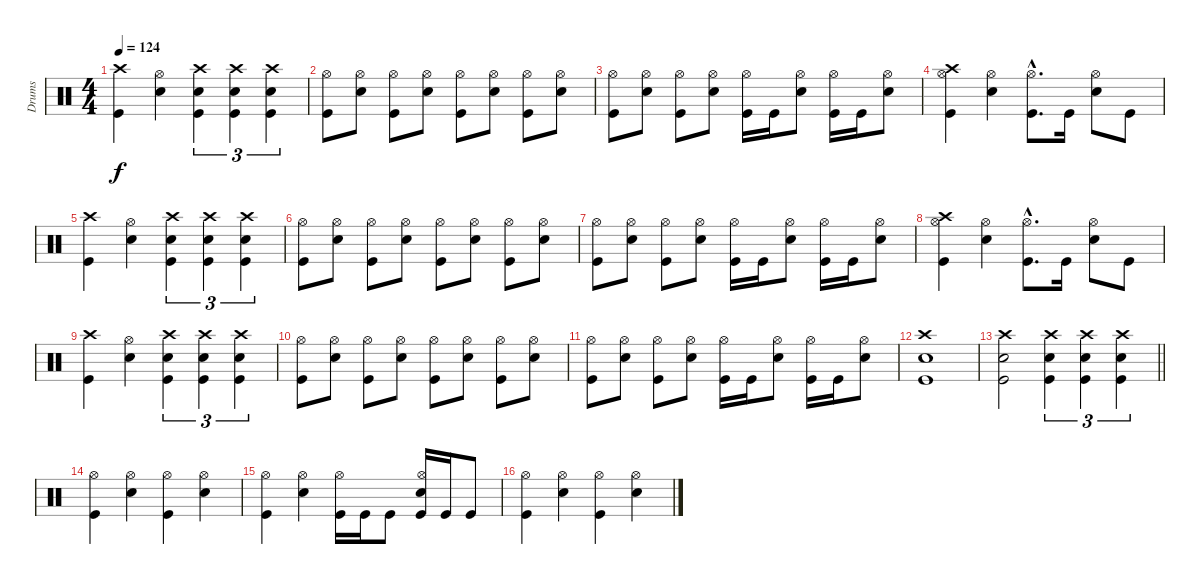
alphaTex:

\track ("Drums" "Drums") {instrument percussion}
\staff {score}
\articulation defaults
\ts (4 4)
\tempo 124
\clef neutral
\ks c
("Crash high (hit)" "Kick (hit)").4{dy f} ("Hi-Hat (open)" "Electric Snare (hit)").4 ("Crash high (hit)" "Electric Snare (hit)" "Kick (hit)").4{tu (3 2)} ("Crash high (hit)" "Electric Snare (hit)" "Kick (hit)").4{tu (3 2)} ("Crash high (hit)" "Electric Snare (hit)" "Kick (hit)").4{tu (3 2)} |
("Hi-Hat (open)" "Kick (hit)").8 ("Hi-Hat (open)" "Electric Snare (hit)").8 ("Hi-Hat (open)" "Kick (hit)").8 ("Hi-Hat (open)" "Electric Snare (hit)").8 ("Hi-Hat (open)" "Kick (hit)").8 ("Hi-Hat (open)" "Electric Snare (hit)").8 ("Hi-Hat (open)" "Kick (hit)").8 ("Hi-Hat (open)" "Electric Snare (hit)").8 |
("Hi-Hat (open)" "Kick (hit)").8 ("Hi-Hat (open)" "Electric Snare (hit)").8 ("Hi-Hat (open)" "Kick (hit)").8 ("Hi-Hat (open)" "Electric Snare (hit)").8 ("Hi-Hat (open)" "Kick (hit)").16 "Kick (hit)".16 ("Hi-Hat (open)" "Electric Snare (hit)").8 ("Hi-Hat (open)" "Kick (hit)").16 "Kick (hit)".16 ("Hi-Hat (open)" "Electric Snare (hit)").8 |
("Crash high (hit)" "Hi-Hat (open)" "Kick (hit)").4 ("Hi-Hat (open)" "Electric Snare (hit)").4 ("Hi-Hat (open)"{hac} "Kick (hit)"{hac}).8{d} "Kick (hit)".16 ("Hi-Hat (open)" "Electric Snare (hit)").8 "Kick (hit)".8 |
("Crash high (hit)" "Kick (hit)").4 ("Hi-Hat (open)" "Electric Snare (hit)").4 ("Crash high (hit)" "Electric Snare (hit)" "Kick (hit)").4{tu (3 2)} ("Crash high (hit)" "Electric Snare (hit)" "Kick (hit)").4{tu (3 2)} ("Crash high (hit)" "Electric Snare (hit)" "Kick (hit)").4{tu (3 2)} |
("Hi-Hat (open)" "Kick (hit)").8 ("Hi-Hat (open)" "Electric Snare (hit)").8 ("Hi-Hat (open)" "Kick (hit)").8 ("Hi-Hat (open)" "Electric Snare (hit)").8 ("Hi-Hat (open)" "Kick (hit)").8 ("Hi-Hat (open)" "Electric Snare (hit)").8 ("Hi-Hat (open)" "Kick (hit)").8 ("Hi-Hat (open)" "Electric Snare (hit)").8 |
("Hi-Hat (open)" "Kick (hit)").8 ("Hi-Hat (open)" "Electric Snare (hit)").8 ("Hi-Hat (open)" "Kick (hit)").8 ("Hi-Hat (open)" "Electric Snare (hit)").8 ("Hi-Hat (open)" "Kick (hit)").16 "Kick (hit)".16 ("Hi-Hat (open)" "Electric Snare (hit)").8 ("Hi-Hat (open)" "Kick (hit)").16 "Kick (hit)".16 ("Hi-Hat (open)" "Electric Snare (hit)").8 |
("Crash high (hit)" "Hi-Hat (open)" "Kick (hit)").4 ("Hi-Hat (open)" "Electric Snare (hit)").4 ("Hi-Hat (open)"{hac} "Kick (hit)"{hac}).8{d} "Kick (hit)".16 ("Hi-Hat (open)" "Electric Snare (hit)").8 "Kick (hit)".8 |
("Crash high (hit)" "Kick (hit)").4 ("Hi-Hat (open)" "Electric Snare (hit)").4 ("Crash high (hit)" "Electric Snare (hit)" "Kick (hit)").4{tu (3 2)} ("Crash high (hit)" "Electric Snare (hit)" "Kick (hit)").4{tu (3 2)} ("Crash high (hit)" "Electric Snare (hit)" "Kick (hit)").4{tu (3 2)} |
("Hi-Hat (open)" "Kick (hit)").8 ("Hi-Hat (open)" "Electric Snare (hit)").8 ("Hi-Hat (open)" "Kick (hit)").8 ("Hi-Hat (open)" "Electric Snare (hit)").8 ("Hi-Hat (open)" "Kick (hit)").8 ("Hi-Hat (open)" "Electric Snare (hit)").8 ("Hi-Hat (open)" "Kick (hit)").8 ("Hi-Hat (open)" "Electric Snare (hit)").8 |
("Hi-Hat (open)" "Kick (hit)").8 ("Hi-Hat (open)" "Electric Snare (hit)").8 ("Hi-Hat (open)" "Kick (hit)").8 ("Hi-Hat (open)" "Electric Snare (hit)").8 ("Hi-Hat (open)" "Kick (hit)").16 "Kick (hit)".16 ("Hi-Hat (open)" "Electric Snare (hit)").8 ("Hi-Hat (open)" "Kick (hit)").16 "Kick (hit)".16 ("Hi-Hat (open)" "Electric Snare (hit)").8 |
("Crash high (hit)" "Electric Snare (hit)" "Kick (hit)").1 |
\barLineRight lightlight
("Crash high (hit)" "Electric Snare (hit)" "Kick (hit)").2 ("Crash high (hit)" "Electric Snare (hit)" "Kick (hit)").4{tu (3 2)} ("Crash high (hit)" "Electric Snare (hit)" "Kick (hit)").4{tu (3 2)} ("Crash high (hit)" "Electric Snare (hit)" "Kick (hit)").4{tu (3 2)} |
("Hi-Hat (open)" "Kick (hit)").4 ("Hi-Hat (open)" "Electric Snare (hit)").4 ("Hi-Hat (open)" "Kick (hit)").4 ("Hi-Hat (open)" "Electric Snare (hit)").4 |
("Hi-Hat (open)" "Kick (hit)").4 ("Hi-Hat (open)" "Electric Snare (hit)").4 ("Hi-Hat (open)" "Kick (hit)").16 "Kick (hit)".16 "Kick (hit)".8 ("Hi-Hat (open)" "Electric Snare (hit)" "Kick (hit)").16 "Kick (hit)".16 "Kick (hit)".8 |
("Hi-Hat (open)" "Kick (hit)").4 ("Hi-Hat (open)" "Electric Snare (hit)").4 ("Hi-Hat (open)" "Kick (hit)").4 ("Hi-Hat (open)" "Electric Snare (hit)").4
